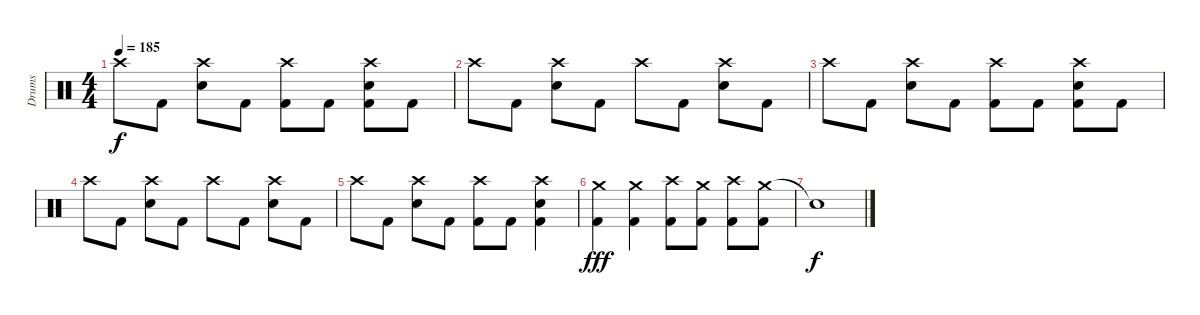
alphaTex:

\track ("Drums" "Drums") {instrument percussion}
\staff {score}
\articulation defaults
\ts (4 4)
\tempo 185
\clef neutral
\ks c "Crash high (hit)".8{dy f} "Kick (hit) 2".8
("Crash high (hit)" "Electric Snare (hit)").8 "Kick (hit) 2".8 ("Crash high (hit)" "Kick (hit) 2").8 "Kick (hit) 2".8 ("Crash high (hit)" "Electric Snare (hit)" "Kick (hit) 2").8 "Kick (hit) 2".8 |
"Crash high (hit)".8 "Kick (hit) 2".8 ("Crash high (hit)" "Electric Snare (hit)").8 "Kick (hit) 2".8 "Crash high (hit)".8 "Kick (hit) 2".8 ("Crash high (hit)" "Electric Snare (hit)").8 "Kick (hit) 2".8 |
"Crash high (hit)".8 "Kick (hit) 2".8 ("Crash high (hit)" "Electric Snare (hit)").8 "Kick (hit) 2".8 ("Crash high (hit)" "Kick (hit) 2").8 "Kick (hit) 2".8 ("Crash high (hit)" "Electric Snare (hit)" "Kick (hit) 2").8 "Kick (hit) 2".8 |
"Crash high (hit)".8 "Kick (hit) 2".8 ("Crash high (hit)" "Electric Snare (hit)").8 "Kick (hit) 2".8 "Crash high (hit)".8 "Kick (hit) 2".8 ("Crash high (hit)" "Electric Snare (hit)").8 "Kick (hit) 2".8 |
"Crash high (hit)".8 "Kick (hit) 2".8 ("Crash high (hit)" "Electric Snare (hit)").8 "Kick (hit) 2".8 ("Crash high (hit)" "Kick (hit) 2").8 "Kick (hit) 2".8 ("Crash high (hit)" "Electric Snare (hit)" "Kick (hit) 2").4 |
("Crash medium (hit)" "Kick (hit) 2").4{dy fff} ("Crash medium (hit)" "Kick (hit) 2").4 ("Crash high (hit)" "Kick (hit) 2").8 ("Crash medium (hit)" "Kick (hit) 2").8 ("Crash high (hit)" "Kick (hit) 2").8 ("Crash medium (hit)" "Kick (hit) 2").8 |
"Snare (hit)"{t}.1{dy f}
